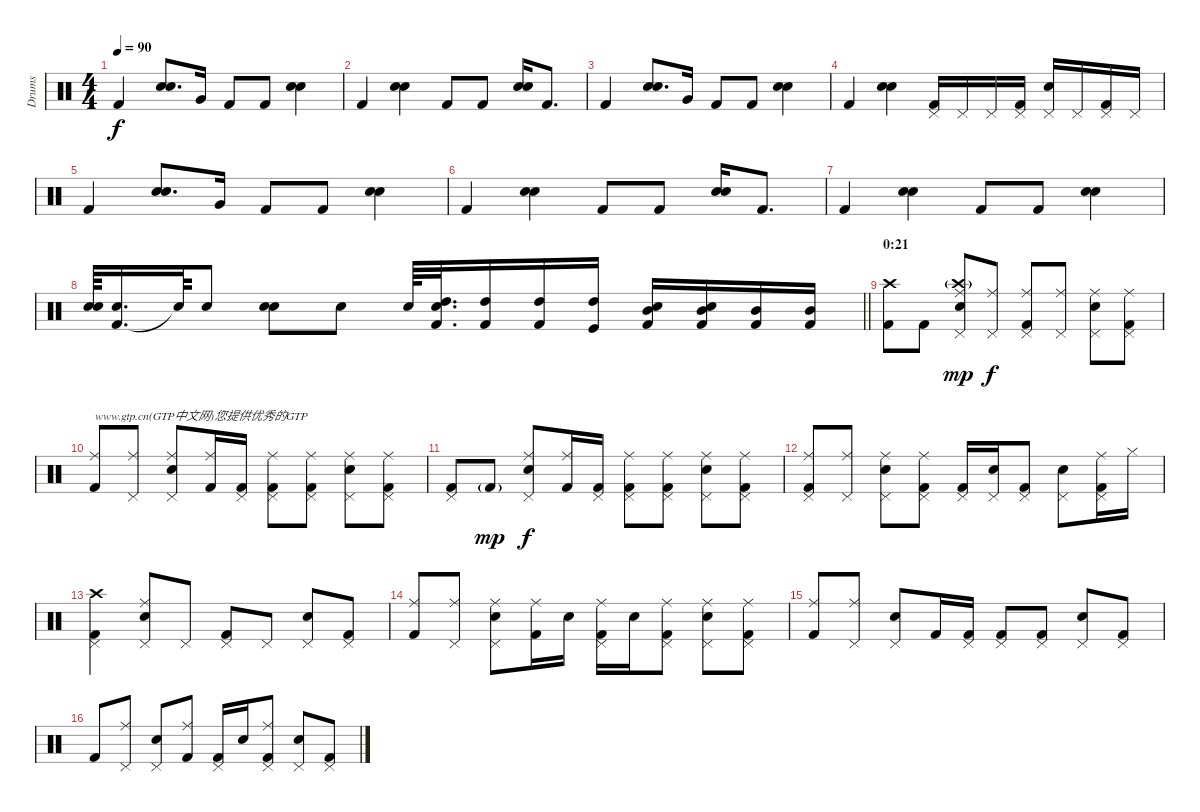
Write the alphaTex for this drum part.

\track ("Drums" "Drums") {instrument percussion}
\staff {score}
\articulation defaults
\ts (4 4)
\tempo 90
\clef neutral
\ks c "Kick (hit) 2".4{dy f}
("Hand Clap (hit)" "Snare (hit) 2").8{d} "Very Low Tom (hit)".16 "Kick (hit) 2".8 "Kick (hit) 2".8 ("Hand Clap (hit)" "Snare (hit) 2").4 |
"Kick (hit) 2".4 ("Hand Clap (hit)" "Snare (hit) 2").4 "Kick (hit) 2".8 "Kick (hit) 2".8 ("Hand Clap (hit)" "Snare (hit) 2").16 "Kick (hit) 2".8{d} |
"Kick (hit) 2".4 ("Hand Clap (hit)" "Snare (hit) 2").8{d} "Very Low Tom (hit)".16 "Kick (hit) 2".8 "Kick (hit) 2".8 ("Hand Clap (hit)" "Snare (hit) 2").4 |
"Kick (hit) 2".4 ("Hand Clap (hit)" "Snare (hit) 2").4 ("Kick (hit) 2" "Pedal Hi-Hat (hit)").16 "Pedal Hi-Hat (hit)".16 "Pedal Hi-Hat (hit)".16 ("Kick (hit) 2" "Pedal Hi-Hat (hit)").16 ("Snare (hit) 2" "Pedal Hi-Hat (hit)").16 "Pedal Hi-Hat (hit)".16 ("Kick (hit) 2" "Pedal Hi-Hat (hit)").16 "Pedal Hi-Hat (hit)".16 |
"Kick (hit) 2".4 ("Hand Clap (hit)" "Snare (hit) 2").8{d} "Very Low Tom (hit)".16 "Kick (hit) 2".8 "Kick (hit) 2".8 ("Hand Clap (hit)" "Snare (hit) 2").4 |
"Kick (hit) 2".4 ("Hand Clap (hit)" "Snare (hit) 2").4 "Kick (hit) 2".8 "Kick (hit) 2".8 ("Hand Clap (hit)" "Snare (hit) 2").16 "Kick (hit) 2".8{d} |
"Kick (hit) 2".4 ("Hand Clap (hit)" "Snare (hit) 2").4 "Kick (hit) 2".8 "Kick (hit) 2".8 ("Hand Clap (hit)" "Snare (hit) 2").4 |
\barLineRight lightlight
("Snare (hit) 2" "Hand Clap (hit)").64 ("Kick (hit) 2" "Snare (hit) 2").16{d} "Snare (hit)"{t}.64 "Snare (hit) 2".8 ("Hand Clap (hit)" "Snare (hit) 2").8 "Snare (hit) 2".8 "Snare (hit) 2".64 ("Kick (hit) 2" "Snare (hit) 2" "High Tom (hit)").32{d} ("Kick (hit) 2" "High Tom (hit)").16 ("Kick (hit) 2" "High Tom (hit)").16 ("Kick (hit)" "High Tom (hit)").16 ("Kick (hit) 2" "Mid Tom (hit)" "Hand Clap (hit)").16 ("Kick (hit) 2" "Snare (hit) 2" "Mid Tom (hit)").16 ("Kick (hit) 2" "Mid Tom (hit)").16 ("Kick (hit) 2" "Mid Tom (hit)").16 |
\section ("" "0:21")
("Kick (hit) 2" "Crash high (hit)").8 "Kick (hit) 2".8 ("Snare (hit) 2" "Pedal Hi-Hat (hit)" "Crash high (hit)"{g} "Ride (middle)").8{dy mp} ("Pedal Hi-Hat (hit)" "Ride (middle)").8{dy f} ("Kick (hit) 2" "Pedal Hi-Hat (hit)" "Ride (middle)").8 ("Pedal Hi-Hat (hit)" "Ride (middle)").8 ("Snare (hit) 2" "Pedal Hi-Hat (hit)" "Ride (middle)").8 ("Kick (hit) 2" "Pedal Hi-Hat (hit)" "Ride (middle)").8 |
("Kick (hit) 2" "Ride (middle)").8{txt "www.gtp.cn(GTP中文网)您提供优秀的GTP"} ("Pedal Hi-Hat (hit)" "Ride (middle)").8 ("Snare (hit) 2" "Pedal Hi-Hat (hit)" "Ride (middle)").8 ("Kick (hit) 2" "Ride (middle)").16 ("Kick (hit) 2" "Pedal Hi-Hat (hit)").16 ("Kick (hit) 2" "Pedal Hi-Hat (hit)" "Ride (middle)").8 ("Kick (hit) 2" "Pedal Hi-Hat (hit)" "Ride (middle)").8 ("Snare (hit) 2" "Pedal Hi-Hat (hit)" "Ride (middle)").8 ("Kick (hit) 2" "Pedal Hi-Hat (hit)" "Ride (middle)").8 |
("Kick (hit) 2" "Pedal Hi-Hat (hit)").8 "Kick (hit) 2"{g}.8{dy mp} ("Snare (hit) 2" "Pedal Hi-Hat (hit)" "Ride (middle)").8{dy f} ("Kick (hit) 2" "Ride (middle)").16 ("Kick (hit) 2" "Pedal Hi-Hat (hit)").16 ("Kick (hit) 2" "Pedal Hi-Hat (hit)" "Ride (middle)").8 ("Kick (hit) 2" "Pedal Hi-Hat (hit)" "Ride (middle)").8 ("Snare (hit) 2" "Pedal Hi-Hat (hit)" "Ride (middle)").8 ("Kick (hit) 2" "Pedal Hi-Hat (hit)" "Ride (middle)").8 |
("Kick (hit) 2" "Pedal Hi-Hat (hit)" "Ride (middle)").8 ("Pedal Hi-Hat (hit)" "Ride (middle)").8 ("Snare (hit) 2" "Pedal Hi-Hat (hit)" "Ride (middle)").8 ("Kick (hit) 2" "Pedal Hi-Hat (hit)" "Ride (middle)").8 ("Kick (hit) 2" "Pedal Hi-Hat (hit)").16 ("Snare (hit) 2" "Pedal Hi-Hat (hit)").16 ("Kick (hit) 2" "Pedal Hi-Hat (hit)").8 ("Snare (hit) 2" "Pedal Hi-Hat (hit)").8 ("Kick (hit) 2" "Pedal Hi-Hat (hit)" "Ride (middle)").16 "Hi-Hat (closed)".16 |
("Kick (hit) 2" "Pedal Hi-Hat (hit)" "Crash high (hit)").4 ("Snare (hit) 2" "Pedal Hi-Hat (hit)" "Ride (middle)").8 "Pedal Hi-Hat (hit)".8 ("Kick (hit) 2" "Pedal Hi-Hat (hit)").8 "Pedal Hi-Hat (hit)".8 ("Snare (hit) 2" "Pedal Hi-Hat (hit)").8 ("Kick (hit) 2" "Pedal Hi-Hat (hit)").8 |
("Kick (hit) 2" "Ride (middle)").8 ("Pedal Hi-Hat (hit)" "Ride (middle)").8 ("Snare (hit) 2" "Pedal Hi-Hat (hit)" "Ride (middle)").8 ("Kick (hit) 2" "Ride (middle)").16 "Snare (hit) 2".16 ("Kick (hit) 2" "Pedal Hi-Hat (hit)" "Ride (middle)").16 "Snare (hit) 2".16 ("Kick (hit) 2" "Pedal Hi-Hat (hit)" "Ride (middle)").8 ("Snare (hit) 2" "Pedal Hi-Hat (hit)" "Ride (middle)").8 ("Kick (hit) 2" "Pedal Hi-Hat (hit)" "Ride (middle)").8 |
("Kick (hit) 2" "Ride (middle)").8 ("Pedal Hi-Hat (hit)" "Ride (middle)").8 ("Snare (hit) 2" "Pedal Hi-Hat (hit)").8 "Kick (hit) 2".16 ("Kick (hit) 2" "Pedal Hi-Hat (hit)").16 ("Kick (hit) 2" "Pedal Hi-Hat (hit)").8 ("Kick (hit) 2" "Pedal Hi-Hat (hit)").8 ("Snare (hit) 2" "Pedal Hi-Hat (hit)").8 ("Kick (hit) 2" "Pedal Hi-Hat (hit)").8 |
"Kick (hit) 2".8 ("Pedal Hi-Hat (hit)" "Ride (middle)").8 ("Snare (hit) 2" "Pedal Hi-Hat (hit)").8 ("Kick (hit) 2" "Ride (middle)").8 ("Kick (hit) 2" "Pedal Hi-Hat (hit)").16 "Snare (hit) 2".16 ("Kick (hit) 2" "Pedal Hi-Hat (hit)" "Ride (middle)").8 ("Snare (hit) 2" "Pedal Hi-Hat (hit)").8 ("Kick (hit) 2" "Pedal Hi-Hat (hit)").8
